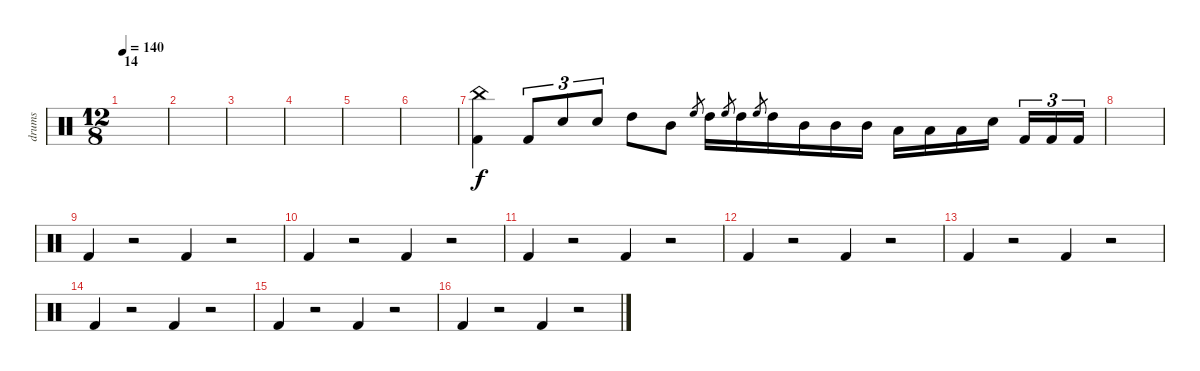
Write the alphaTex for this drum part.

\track ("drums" "drums") {instrument percussion}
\staff {score}
\articulation defaults
\ts (12 8)
\section ("" "14")
\tempo 140
\clef neutral
\ks c
|
|
|
|
|
|
("China (hit)" "Kick (hit) 2").4 "Kick (hit) 2".8{tu (3 2)} "Electric Snare (hit)".8{tu (3 2)} "Electric Snare (hit)".8{tu (3 2)} "High Tom (hit)".8 "Mid Tom (hit)".8 "High Floor Tom (hit)".8{gr} "High Tom (hit)".16 "High Floor Tom (hit)".8{gr} "High Tom (hit)".16 "High Floor Tom (hit)".8{gr} "High Tom (hit)".16 "Mid Tom (hit)".16 "Mid Tom (hit)".16 "Mid Tom (hit)".16 "Low Tom (hit)".16 "Low Tom (hit)".16 "Low Tom (hit)".16 "Snare (hit) 2".16{beam splitsecondary} "Kick (hit) 2".16{tu (3 2)} "Kick (hit) 2".16{tu (3 2)} "Kick (hit) 2".16{tu (3 2)} |
|
"Kick (hit) 2".4 r.2 "Kick (hit) 2".4 r.2 |
"Kick (hit) 2".4 r.2 "Kick (hit) 2".4 r.2 |
"Kick (hit) 2".4 r.2 "Kick (hit) 2".4 r.2 |
"Kick (hit) 2".4 r.2 "Kick (hit) 2".4 r.2 |
"Kick (hit) 2".4 r.2 "Kick (hit) 2".4 r.2 |
"Kick (hit) 2".4 r.2 "Kick (hit) 2".4 r.2 |
"Kick (hit) 2".4 r.2 "Kick (hit) 2".4 r.2 |
"Kick (hit) 2".4 r.2 "Kick (hit) 2".4 r.2
